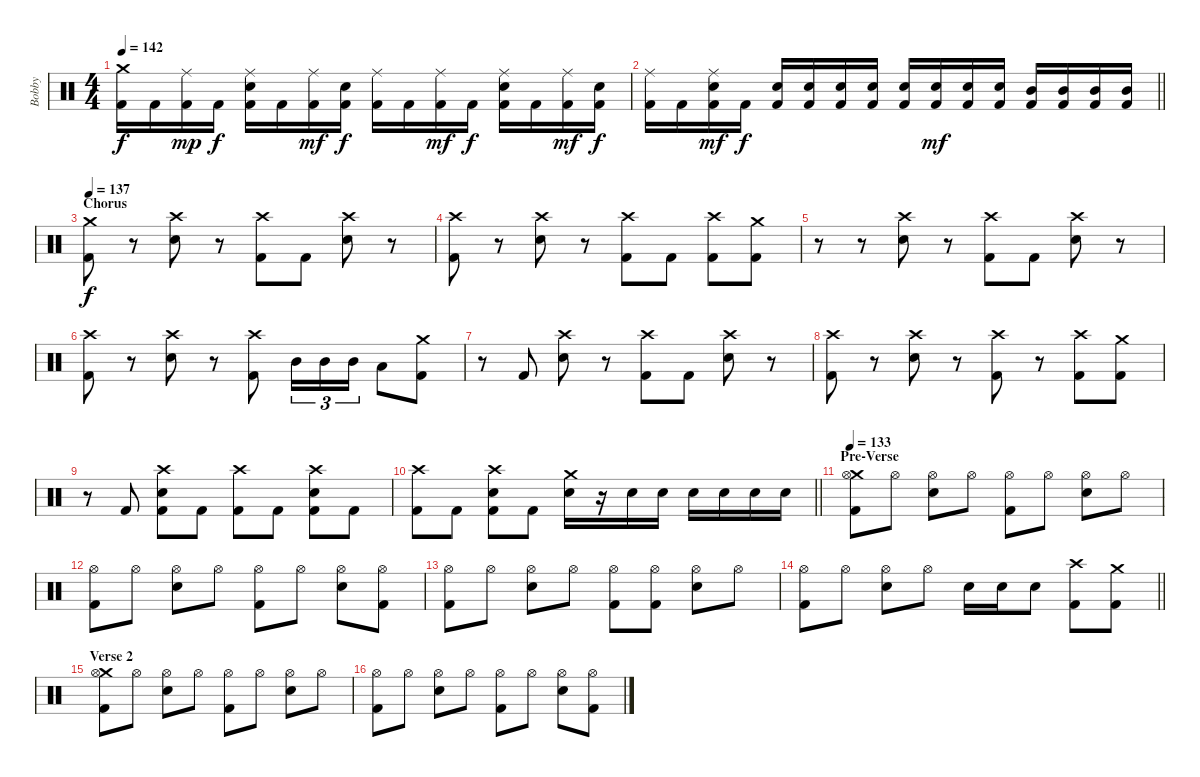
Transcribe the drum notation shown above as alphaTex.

\track ("Bobby" "Bobby") {instrument percussion}
\staff {score}
\articulation defaults
\ts (4 4)
\tempo 142
\clef neutral
\ks c
("Crash medium (hit)" "Kick (hit) 2").16{dy f} "Kick (hit) 2".16 ("Ride (middle)" "Kick (hit) 2").16{dy mp} "Kick (hit) 2".16{dy f} ("Ride (middle)" "Electric Snare (hit)" "Kick (hit) 2").16 "Kick (hit) 2".16 ("Ride (middle)" "Kick (hit) 2").16{dy mf} ("Electric Snare (hit)" "Kick (hit) 2").16{dy f} ("Ride (middle)" "Kick (hit) 2").16 "Kick (hit) 2".16 ("Ride (middle)" "Kick (hit) 2").16{dy mf} "Kick (hit) 2".16{dy f} ("Ride (middle)" "Electric Snare (hit)" "Kick (hit) 2").16 "Kick (hit) 2".16 ("Ride (middle)" "Kick (hit) 2").16{dy mf} ("Electric Snare (hit)" "Kick (hit) 2").16{dy f} |
\barLineRight lightlight
("Ride (middle)" "Kick (hit) 2").16 "Kick (hit) 2".16 ("Ride (middle)" "Electric Snare (hit)" "Kick (hit) 2").16{dy mf} "Kick (hit) 2".16{dy f} ("Electric Snare (hit)" "Kick (hit) 2").16 ("Electric Snare (hit)" "Kick (hit) 2").16 ("Electric Snare (hit)" "Kick (hit) 2").16 ("Electric Snare (hit)" "Kick (hit) 2").16 ("Electric Snare (hit)" "Kick (hit) 2").16 ("Electric Snare (hit)" "Kick (hit) 2").16{dy mf} ("Electric Snare (hit)" "Kick (hit) 2").16 ("Electric Snare (hit)" "Kick (hit) 2").16 ("Mid Tom (hit)" "Kick (hit) 2").16 ("Mid Tom (hit)" "Kick (hit) 2").16 ("Mid Tom (hit)" "Kick (hit) 2").16 ("Mid Tom (hit)" "Kick (hit) 2").16 |
\section ("" "Chorus")
\tempo 130
\tempo 137
("Crash medium (hit)" "Kick (hit) 2").8{dy f} r.8 ("Crash high (hit)" "Electric Snare (hit)").8 r.8 ("Crash high (hit)" "Kick (hit) 2").8 "Kick (hit) 2".8 ("Crash high (hit)" "Electric Snare (hit)").8 r.8 |
("Crash high (hit)" "Kick (hit) 2").8 r.8 ("Crash high (hit)" "Electric Snare (hit)").8 r.8 ("Crash high (hit)" "Kick (hit) 2").8 "Kick (hit) 2".8 ("Crash high (hit)" "Kick (hit) 2").8 ("Crash medium (hit)" "Kick (hit) 2").8 |
r.8 r.8 ("Crash high (hit)" "Electric Snare (hit)").8 r.8 ("Crash high (hit)" "Kick (hit) 2").8 "Kick (hit) 2".8 ("Crash high (hit)" "Electric Snare (hit)").8 r.8 |
("Crash high (hit)" "Kick (hit) 2").8 r.8 ("Crash high (hit)" "Electric Snare (hit)").8 r.8 ("Crash high (hit)" "Kick (hit) 2").8 "Mid Tom (hit)".16{tu (3 2)} "Mid Tom (hit)".16{tu (3 2)} "Mid Tom (hit)".16{tu (3 2)} "Low Tom (hit)".8 ("Crash medium (hit)" "Kick (hit) 2").8 |
r.8 "Kick (hit) 2".8 ("Crash high (hit)" "Electric Snare (hit)").8 r.8 ("Crash high (hit)" "Kick (hit) 2").8 "Kick (hit) 2".8 ("Crash high (hit)" "Electric Snare (hit)").8 r.8 |
("Crash high (hit)" "Kick (hit) 2").8 r.8 ("Crash high (hit)" "Electric Snare (hit)").8 r.8 ("Crash high (hit)" "Kick (hit) 2").8 r.8 ("Crash high (hit)" "Kick (hit) 2").8 ("Crash medium (hit)" "Kick (hit) 2").8 |
r.8 "Kick (hit) 2".8 ("Crash high (hit)" "Electric Snare (hit)" "Kick (hit) 2").8 "Kick (hit) 2".8 ("Crash high (hit)" "Kick (hit) 2").8 "Kick (hit) 2".8 ("Crash high (hit)" "Electric Snare (hit)" "Kick (hit) 2").8 "Kick (hit) 2".8 |
\barLineRight lightlight
("Crash high (hit)" "Kick (hit) 2").8 "Kick (hit) 2".8 ("Crash high (hit)" "Electric Snare (hit)" "Kick (hit) 2").8 "Kick (hit) 2".8 ("Crash medium (hit)" "Electric Snare (hit)").16 r.16 "Electric Snare (hit)".16 "Electric Snare (hit)".16 "Electric Snare (hit)".16 "Electric Snare (hit)".16 "Electric Snare (hit)".16 "Electric Snare (hit)".16 |
\section ("" "Pre-Verse")
\tempo 133
("Crash medium (hit)" "Hi-Hat (open)" "Kick (hit) 2").8 "Hi-Hat (open)".8 ("Hi-Hat (open)" "Electric Snare (hit)").8 "Hi-Hat (open)".8 ("Hi-Hat (open)" "Kick (hit) 2").8 "Hi-Hat (open)".8 ("Hi-Hat (open)" "Electric Snare (hit)").8 "Hi-Hat (open)".8 |
("Hi-Hat (open)" "Kick (hit) 2").8 "Hi-Hat (open)".8 ("Hi-Hat (open)" "Electric Snare (hit)").8 "Hi-Hat (open)".8 ("Hi-Hat (open)" "Kick (hit) 2").8 "Hi-Hat (open)".8 ("Hi-Hat (open)" "Electric Snare (hit)").8 ("Hi-Hat (open)" "Kick (hit) 2").8 |
("Hi-Hat (open)" "Kick (hit) 2").8 "Hi-Hat (open)".8 ("Hi-Hat (open)" "Electric Snare (hit)").8 "Hi-Hat (open)".8 ("Hi-Hat (open)" "Kick (hit) 2").8 ("Hi-Hat (open)" "Kick (hit) 2").8 ("Hi-Hat (open)" "Electric Snare (hit)").8 "Hi-Hat (open)".8 |
\barLineRight lightlight
("Hi-Hat (open)" "Kick (hit) 2").8 "Hi-Hat (open)".8 ("Hi-Hat (open)" "Electric Snare (hit)").8 "Hi-Hat (open)".8 "Electric Snare (hit)".16 "Electric Snare (hit)".16 "Electric Snare (hit)".8 ("Crash high (hit)" "Kick (hit) 2").8 ("Crash medium (hit)" "Kick (hit) 2").8 |
\section ("" "Verse 2")
("Crash medium (hit)" "Hi-Hat (open)" "Kick (hit) 2").8 "Hi-Hat (open)".8 ("Hi-Hat (open)" "Electric Snare (hit)").8 "Hi-Hat (open)".8 ("Hi-Hat (open)" "Kick (hit) 2").8 "Hi-Hat (open)".8 ("Hi-Hat (open)" "Electric Snare (hit)").8 "Hi-Hat (open)".8 |
("Hi-Hat (open)" "Kick (hit) 2").8 "Hi-Hat (open)".8 ("Hi-Hat (open)" "Electric Snare (hit)").8 "Hi-Hat (open)".8 ("Hi-Hat (open)" "Kick (hit) 2").8 "Hi-Hat (open)".8 ("Hi-Hat (open)" "Electric Snare (hit)").8 ("Hi-Hat (open)" "Kick (hit) 2").8
